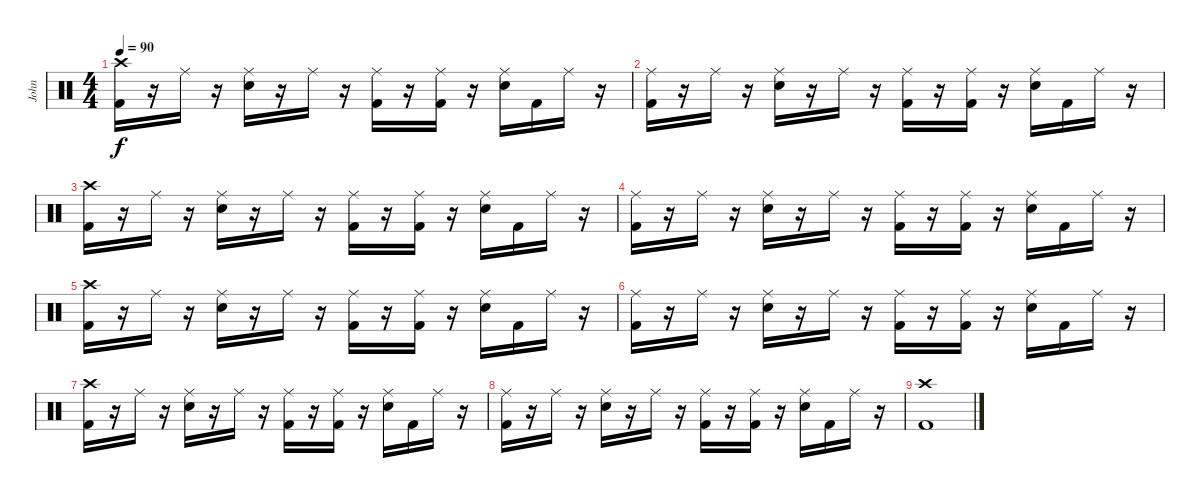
\track ("John" "John") {instrument percussion}
\staff {score}
\articulation defaults
\ts (4 4)
\tempo 90
\clef neutral
\ks c
("Crash high (hit)" "Kick (hit) 2").16{dy f} r.16 "Ride (middle)".16 r.16 ("Ride (middle)" "Snare (hit) 2").16 r.16 "Ride (middle)".16 r.16 ("Ride (middle)" "Kick (hit) 2").16 r.16 ("Ride (middle)" "Kick (hit) 2").16 r.16 ("Ride (middle)" "Snare (hit) 2").16 "Kick (hit) 2".16 "Ride (middle)".16 r.16 |
("Ride (middle)" "Kick (hit) 2").16 r.16 "Ride (middle)".16 r.16 ("Ride (middle)" "Snare (hit) 2").16 r.16 "Ride (middle)".16 r.16 ("Ride (middle)" "Kick (hit) 2").16 r.16 ("Ride (middle)" "Kick (hit) 2").16 r.16 ("Ride (middle)" "Snare (hit) 2").16 "Kick (hit) 2".16 "Ride (middle)".16 r.16 |
("Crash high (hit)" "Kick (hit) 2").16 r.16 "Ride (middle)".16 r.16 ("Ride (middle)" "Snare (hit) 2").16 r.16 "Ride (middle)".16 r.16 ("Ride (middle)" "Kick (hit) 2").16 r.16 ("Ride (middle)" "Kick (hit) 2").16 r.16 ("Ride (middle)" "Snare (hit) 2").16 "Kick (hit) 2".16 "Ride (middle)".16 r.16 |
("Ride (middle)" "Kick (hit) 2").16 r.16 "Ride (middle)".16 r.16 ("Ride (middle)" "Snare (hit) 2").16 r.16 "Ride (middle)".16 r.16 ("Ride (middle)" "Kick (hit) 2").16 r.16 ("Ride (middle)" "Kick (hit) 2").16 r.16 ("Ride (middle)" "Snare (hit) 2").16 "Kick (hit) 2".16 "Ride (middle)".16 r.16 |
("Crash high (hit)" "Kick (hit) 2").16 r.16 "Ride (middle)".16 r.16 ("Ride (middle)" "Snare (hit) 2").16 r.16 "Ride (middle)".16 r.16 ("Ride (middle)" "Kick (hit) 2").16 r.16 ("Ride (middle)" "Kick (hit) 2").16 r.16 ("Ride (middle)" "Snare (hit) 2").16 "Kick (hit) 2".16 "Ride (middle)".16 r.16 |
("Ride (middle)" "Kick (hit) 2").16 r.16 "Ride (middle)".16 r.16 ("Ride (middle)" "Snare (hit) 2").16 r.16 "Ride (middle)".16 r.16 ("Ride (middle)" "Kick (hit) 2").16 r.16 ("Ride (middle)" "Kick (hit) 2").16 r.16 ("Ride (middle)" "Snare (hit) 2").16 "Kick (hit) 2".16 "Ride (middle)".16 r.16 |
("Crash high (hit)" "Kick (hit) 2").16 r.16 "Ride (middle)".16 r.16 ("Ride (middle)" "Snare (hit) 2").16 r.16 "Ride (middle)".16 r.16 ("Ride (middle)" "Kick (hit) 2").16 r.16 ("Ride (middle)" "Kick (hit) 2").16 r.16 ("Ride (middle)" "Snare (hit) 2").16 "Kick (hit) 2".16 "Ride (middle)".16 r.16 |
("Ride (middle)" "Kick (hit) 2").16 r.16 "Ride (middle)".16 r.16 ("Ride (middle)" "Snare (hit) 2").16 r.16 "Ride (middle)".16 r.16 ("Ride (middle)" "Kick (hit) 2").16 r.16 ("Ride (middle)" "Kick (hit) 2").16 r.16 ("Ride (middle)" "Snare (hit) 2").16 "Kick (hit) 2".16 "Ride (middle)".16 r.16 |
("Crash high (hit)" "Kick (hit) 2").1
